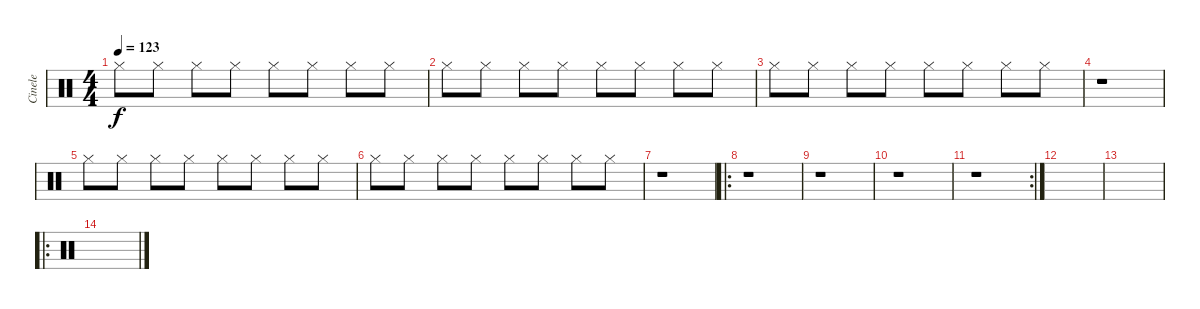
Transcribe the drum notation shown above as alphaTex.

\track ("Cinele" "Cinele") {instrument percussion}
\staff {score}
\articulation defaults
\ts (4 4)
\tempo 123
\clef neutral
\ks c "Hi-Hat (closed)".8{dy f} "Hi-Hat (closed)".8 "Hi-Hat (closed)".8 "Hi-Hat (closed)".8 "Hi-Hat (closed)".8 "Hi-Hat (closed)".8 "Hi-Hat (closed)".8 "Hi-Hat (closed)".8
|
"Hi-Hat (closed)".8 "Hi-Hat (closed)".8 "Hi-Hat (closed)".8 "Hi-Hat (closed)".8 "Hi-Hat (closed)".8 "Hi-Hat (closed)".8 "Hi-Hat (closed)".8 "Hi-Hat (closed)".8 |
"Hi-Hat (closed)".8 "Hi-Hat (closed)".8 "Hi-Hat (closed)".8 "Hi-Hat (closed)".8 "Hi-Hat (closed)".8 "Hi-Hat (closed)".8 "Hi-Hat (closed)".8 "Hi-Hat (closed)".8 |
r.1 |
"Hi-Hat (closed)".8 "Hi-Hat (closed)".8 "Hi-Hat (closed)".8 "Hi-Hat (closed)".8 "Hi-Hat (closed)".8 "Hi-Hat (closed)".8 "Hi-Hat (closed)".8 "Hi-Hat (closed)".8 |
"Hi-Hat (closed)".8 "Hi-Hat (closed)".8 "Hi-Hat (closed)".8 "Hi-Hat (closed)".8 "Hi-Hat (closed)".8 "Hi-Hat (closed)".8 "Hi-Hat (closed)".8 "Hi-Hat (closed)".8 |
r.1 |
\ro
r.1 |
r.1 |
r.1 |
\rc 2
r.1 |
|
|
\ro
